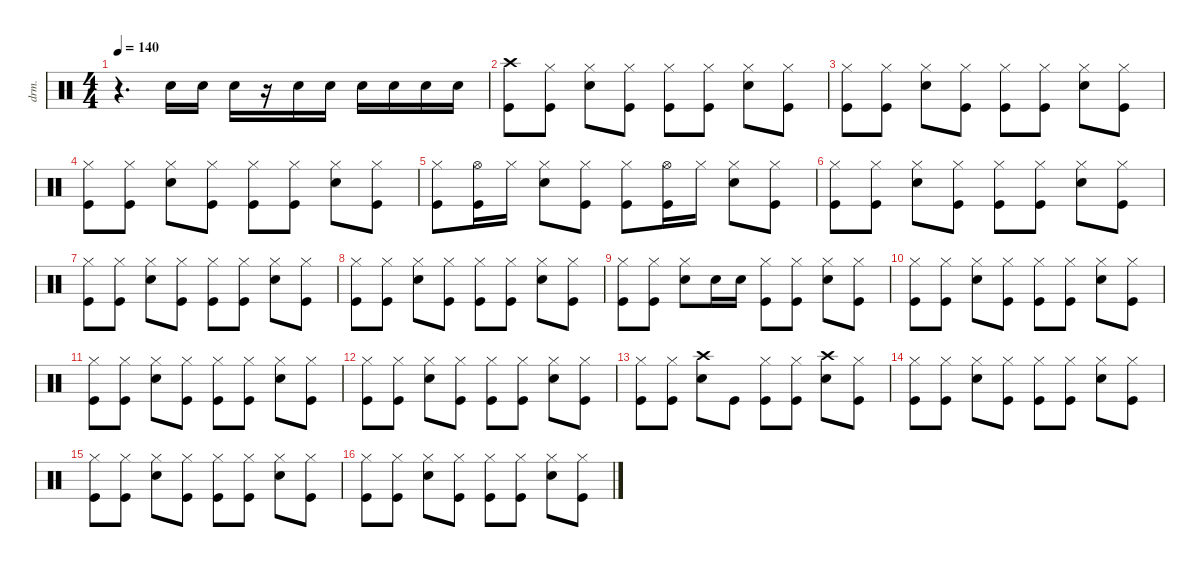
\defaultSystemsLayout 4
\hideDynamics
\bracketExtendMode nobrackets
\otherSystemsTrackNameOrientation horizontal
\track ("Drums" "drm.") {instrument percussion}
\staff {score}
\articulation defaults
\ts (4 4)
\tempo 140
\clef neutral
\ks c
r.4{d dy f} "Snare (hit) 2".16 "Snare (hit) 2".16 "Snare (hit) 2".16 r.16 "Snare (hit) 2".16 "Snare (hit) 2".16 "Snare (hit) 2".16 "Snare (hit) 2".16 "Snare (hit) 2".16 "Snare (hit) 2".16 |
("Crash high (hit)" "Kick (hit)").8 ("Kick (hit)" "Hi-Hat (closed)").8 ("Snare (hit) 2" "Hi-Hat (closed)").8 ("Kick (hit)" "Hi-Hat (closed)").8 ("Kick (hit)" "Hi-Hat (closed)").8 ("Kick (hit)" "Hi-Hat (closed)").8 ("Snare (hit) 2" "Hi-Hat (closed)").8 ("Kick (hit)" "Hi-Hat (closed)").8 |
("Kick (hit)" "Hi-Hat (closed)").8 ("Kick (hit)" "Hi-Hat (closed)").8 ("Snare (hit) 2" "Hi-Hat (closed)").8 ("Kick (hit)" "Hi-Hat (closed)").8 ("Kick (hit)" "Hi-Hat (closed)").8 ("Kick (hit)" "Hi-Hat (closed)").8 ("Snare (hit) 2" "Hi-Hat (closed)").8 ("Kick (hit)" "Hi-Hat (closed)").8 |
("Kick (hit)" "Hi-Hat (closed)").8 ("Kick (hit)" "Hi-Hat (closed)").8 ("Snare (hit) 2" "Hi-Hat (closed)").8 ("Kick (hit)" "Hi-Hat (closed)").8 ("Kick (hit)" "Hi-Hat (closed)").8 ("Kick (hit)" "Hi-Hat (closed)").8 ("Snare (hit) 2" "Hi-Hat (closed)").8 ("Kick (hit)" "Hi-Hat (closed)").8 |
("Kick (hit)" "Hi-Hat (closed)").8 ("Hi-Hat (open)" "Kick (hit)").16 "Hi-Hat (closed)".16 ("Snare (hit) 2" "Hi-Hat (closed)").8 ("Kick (hit)" "Hi-Hat (closed)").8 ("Kick (hit)" "Hi-Hat (closed)").8 ("Hi-Hat (open)" "Kick (hit)").16 "Hi-Hat (closed)".16 ("Snare (hit) 2" "Hi-Hat (closed)").8 ("Kick (hit)" "Hi-Hat (closed)").8 |
("Kick (hit)" "Hi-Hat (closed)").8 ("Kick (hit)" "Hi-Hat (closed)").8 ("Snare (hit) 2" "Hi-Hat (closed)").8 ("Kick (hit)" "Hi-Hat (closed)").8 ("Kick (hit)" "Hi-Hat (closed)").8 ("Kick (hit)" "Hi-Hat (closed)").8 ("Snare (hit) 2" "Hi-Hat (closed)").8 ("Kick (hit)" "Hi-Hat (closed)").8 |
("Kick (hit)" "Hi-Hat (closed)").8 ("Kick (hit)" "Hi-Hat (closed)").8 ("Snare (hit) 2" "Hi-Hat (closed)").8 ("Kick (hit)" "Hi-Hat (closed)").8 ("Kick (hit)" "Hi-Hat (closed)").8 ("Kick (hit)" "Hi-Hat (closed)").8 ("Snare (hit) 2" "Hi-Hat (closed)").8 ("Kick (hit)" "Hi-Hat (closed)").8 |
("Kick (hit)" "Hi-Hat (closed)").8 ("Kick (hit)" "Hi-Hat (closed)").8 ("Snare (hit) 2" "Hi-Hat (closed)").8 ("Kick (hit)" "Hi-Hat (closed)").8 ("Kick (hit)" "Hi-Hat (closed)").8 ("Kick (hit)" "Hi-Hat (closed)").8 ("Snare (hit) 2" "Hi-Hat (closed)").8 ("Kick (hit)" "Hi-Hat (closed)").8 |
("Hi-Hat (closed)" "Kick (hit)").8 ("Hi-Hat (closed)" "Kick (hit)").8 ("Hi-Hat (closed)" "Snare (hit) 2").8 "Snare (hit) 2".16 "Snare (hit) 2".16 ("Hi-Hat (closed)" "Kick (hit)").8 ("Hi-Hat (closed)" "Kick (hit)").8 ("Hi-Hat (closed)" "Snare (hit) 2").8 ("Hi-Hat (closed)" "Kick (hit)").8 |
("Kick (hit)" "Hi-Hat (closed)").8 ("Kick (hit)" "Hi-Hat (closed)").8 ("Snare (hit) 2" "Hi-Hat (closed)").8 ("Kick (hit)" "Hi-Hat (closed)").8 ("Kick (hit)" "Hi-Hat (closed)").8 ("Kick (hit)" "Hi-Hat (closed)").8 ("Snare (hit) 2" "Hi-Hat (closed)").8 ("Kick (hit)" "Hi-Hat (closed)").8 |
("Kick (hit)" "Hi-Hat (closed)").8 ("Kick (hit)" "Hi-Hat (closed)").8 ("Snare (hit) 2" "Hi-Hat (closed)").8 ("Kick (hit)" "Hi-Hat (closed)").8 ("Kick (hit)" "Hi-Hat (closed)").8 ("Kick (hit)" "Hi-Hat (closed)").8 ("Snare (hit) 2" "Hi-Hat (closed)").8 ("Kick (hit)" "Hi-Hat (closed)").8 |
("Kick (hit)" "Hi-Hat (closed)").8 ("Kick (hit)" "Hi-Hat (closed)").8 ("Snare (hit) 2" "Hi-Hat (closed)").8 ("Kick (hit)" "Hi-Hat (closed)").8 ("Kick (hit)" "Hi-Hat (closed)").8 ("Kick (hit)" "Hi-Hat (closed)").8 ("Snare (hit) 2" "Hi-Hat (closed)").8 ("Kick (hit)" "Hi-Hat (closed)").8 |
("Hi-Hat (closed)" "Kick (hit)").8 ("Hi-Hat (closed)" "Kick (hit)").8 ("Crash high (hit)" "Snare (hit) 2").8 "Kick (hit)".8 ("Hi-Hat (closed)" "Kick (hit)").8 ("Hi-Hat (closed)" "Kick (hit)").8 ("Crash high (hit)" "Snare (hit) 2").8 ("Hi-Hat (closed)" "Kick (hit)").8 |
("Kick (hit)" "Hi-Hat (closed)").8 ("Kick (hit)" "Hi-Hat (closed)").8 ("Snare (hit) 2" "Hi-Hat (closed)").8 ("Kick (hit)" "Hi-Hat (closed)").8 ("Kick (hit)" "Hi-Hat (closed)").8 ("Kick (hit)" "Hi-Hat (closed)").8 ("Snare (hit) 2" "Hi-Hat (closed)").8 ("Kick (hit)" "Hi-Hat (closed)").8 |
("Kick (hit)" "Hi-Hat (closed)").8 ("Kick (hit)" "Hi-Hat (closed)").8 ("Snare (hit) 2" "Hi-Hat (closed)").8 ("Kick (hit)" "Hi-Hat (closed)").8 ("Kick (hit)" "Hi-Hat (closed)").8 ("Kick (hit)" "Hi-Hat (closed)").8 ("Snare (hit) 2" "Hi-Hat (closed)").8 ("Kick (hit)" "Hi-Hat (closed)").8 |
("Kick (hit)" "Hi-Hat (closed)").8 ("Kick (hit)" "Hi-Hat (closed)").8 ("Snare (hit) 2" "Hi-Hat (closed)").8 ("Kick (hit)" "Hi-Hat (closed)").8 ("Kick (hit)" "Hi-Hat (closed)").8 ("Kick (hit)" "Hi-Hat (closed)").8 ("Snare (hit) 2" "Hi-Hat (closed)").8 ("Kick (hit)" "Hi-Hat (closed)").8
